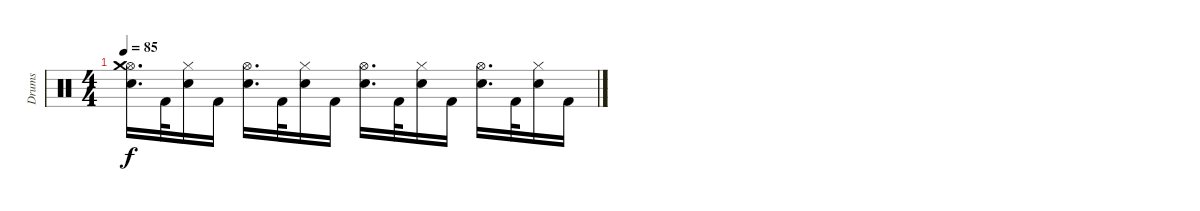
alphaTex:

\track ("Drums" "Drums") {instrument percussion}
\staff {score}
\articulation defaults
\ts (4 4)
\tempo 85
\clef neutral
\ks c
("Hi-Hat (open)" "Crash medium (hit)" "Electric Snare (hit)").16{d dy f} "Kick (hit) 2".32 ("Hi-Hat (closed)" "Electric Snare (hit)").16 "Kick (hit) 2".16 ("Hi-Hat (open)" "Electric Snare (hit)").16{d} "Kick (hit) 2".32 ("Hi-Hat (closed)" "Electric Snare (hit)").16 "Kick (hit) 2".16 ("Hi-Hat (open)" "Electric Snare (hit)").16{d} "Kick (hit) 2".32 ("Hi-Hat (closed)" "Electric Snare (hit)").16 "Kick (hit) 2".16 ("Hi-Hat (open)" "Electric Snare (hit)").16{d} "Kick (hit) 2".32 ("Hi-Hat (closed)" "Electric Snare (hit)").16 "Kick (hit) 2".16
